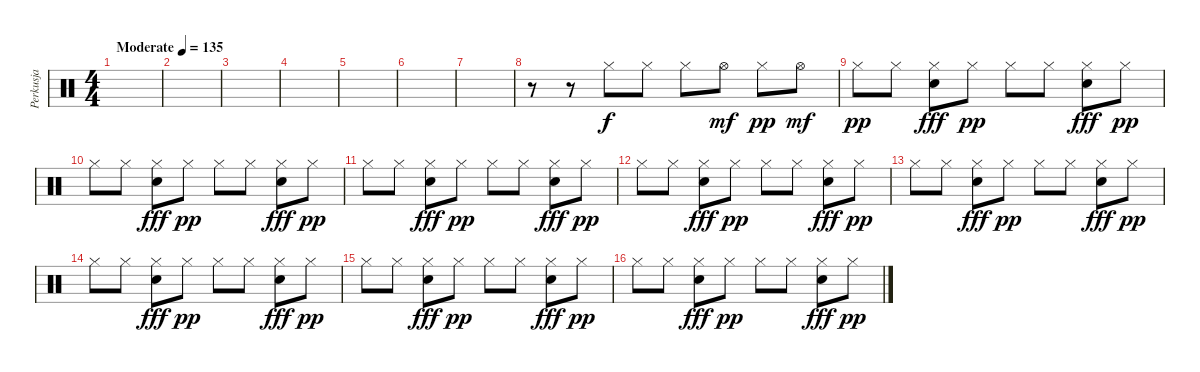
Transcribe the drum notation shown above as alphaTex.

\track ("Perkusja" "Perkusja") {instrument percussion}
\staff {score}
\articulation defaults
\ts (4 4)
\tempo (135 "Moderate")
\clef neutral
\ks c
|
|
|
|
|
|
|
r.8 r.8 "Hi-Hat (closed)".8 "Hi-Hat (closed)".8 "Hi-Hat (closed)".8 "Hi-Hat (open)".8{dy mf} "Hi-Hat (closed)".8{dy pp} "Hi-Hat (open)".8{dy mf} |
"Hi-Hat (closed)".8{dy pp} "Hi-Hat (closed)".8 ("Hi-Hat (closed)" "Electric Snare (hit)").8{dy fff} "Hi-Hat (closed)".8{dy pp} "Hi-Hat (closed)".8 "Hi-Hat (closed)".8 ("Hi-Hat (closed)" "Electric Snare (hit)").8{dy fff} "Hi-Hat (closed)".8{dy pp} |
"Hi-Hat (closed)".8 "Hi-Hat (closed)".8 ("Hi-Hat (closed)" "Electric Snare (hit)").8{dy fff} "Hi-Hat (closed)".8{dy pp} "Hi-Hat (closed)".8 "Hi-Hat (closed)".8 ("Hi-Hat (closed)" "Electric Snare (hit)").8{dy fff} "Hi-Hat (closed)".8{dy pp} |
"Hi-Hat (closed)".8 "Hi-Hat (closed)".8 ("Hi-Hat (closed)" "Electric Snare (hit)").8{dy fff} "Hi-Hat (closed)".8{dy pp} "Hi-Hat (closed)".8 "Hi-Hat (closed)".8 ("Hi-Hat (closed)" "Electric Snare (hit)").8{dy fff} "Hi-Hat (closed)".8{dy pp} |
"Hi-Hat (closed)".8 "Hi-Hat (closed)".8 ("Hi-Hat (closed)" "Electric Snare (hit)").8{dy fff} "Hi-Hat (closed)".8{dy pp} "Hi-Hat (closed)".8 "Hi-Hat (closed)".8 ("Hi-Hat (closed)" "Electric Snare (hit)").8{dy fff} "Hi-Hat (closed)".8{dy pp} |
"Hi-Hat (closed)".8 "Hi-Hat (closed)".8 ("Hi-Hat (closed)" "Electric Snare (hit)").8{dy fff} "Hi-Hat (closed)".8{dy pp} "Hi-Hat (closed)".8 "Hi-Hat (closed)".8 ("Hi-Hat (closed)" "Electric Snare (hit)").8{dy fff} "Hi-Hat (closed)".8{dy pp} |
"Hi-Hat (closed)".8 "Hi-Hat (closed)".8 ("Hi-Hat (closed)" "Electric Snare (hit)").8{dy fff} "Hi-Hat (closed)".8{dy pp} "Hi-Hat (closed)".8 "Hi-Hat (closed)".8 ("Hi-Hat (closed)" "Electric Snare (hit)").8{dy fff} "Hi-Hat (closed)".8{dy pp} |
"Hi-Hat (closed)".8 "Hi-Hat (closed)".8 ("Hi-Hat (closed)" "Electric Snare (hit)").8{dy fff} "Hi-Hat (closed)".8{dy pp} "Hi-Hat (closed)".8 "Hi-Hat (closed)".8 ("Hi-Hat (closed)" "Electric Snare (hit)").8{dy fff} "Hi-Hat (closed)".8{dy pp} |
"Hi-Hat (closed)".8 "Hi-Hat (closed)".8 ("Hi-Hat (closed)" "Electric Snare (hit)").8{dy fff} "Hi-Hat (closed)".8{dy pp} "Hi-Hat (closed)".8 "Hi-Hat (closed)".8 ("Hi-Hat (closed)" "Electric Snare (hit)").8{dy fff} "Hi-Hat (closed)".8{dy pp}
